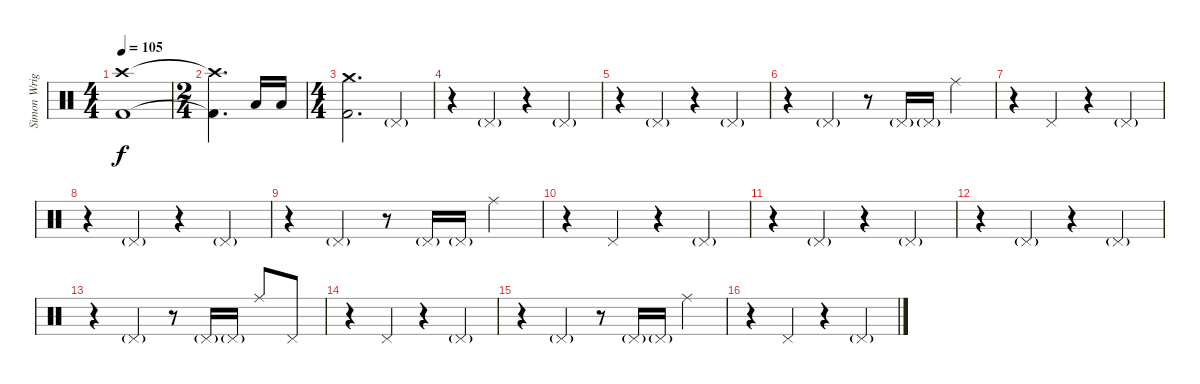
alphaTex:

\track ("Simon Wright" "Simon Wrig") {instrument percussion}
\staff {score}
\articulation defaults
\ts (4 4)
\tempo 105
\clef neutral
\ks c
("Crash high (hit)"{t} "Kick (hit) 2"{t}).1{dy f} |
\ts (2 4)
("Crash high (hit)"{t} "Kick (hit) 2"{t}).4{d} "Low Tom (hit)".16 "Low Tom (hit)".16 |
\ts (4 4)
("Crash medium (hit)" "Kick (hit) 2").2{d} "Pedal Hi-Hat (hit)"{g}.4 |
r.4 "Pedal Hi-Hat (hit)"{g}.4 r.4 "Pedal Hi-Hat (hit)"{g}.4 |
r.4 "Pedal Hi-Hat (hit)"{g}.4 r.4 "Pedal Hi-Hat (hit)"{g}.4 |
r.4 "Pedal Hi-Hat (hit)"{g}.4 r.8 "Pedal Hi-Hat (hit)"{g}.16 "Pedal Hi-Hat (hit)"{g}.16 "Ride (middle)".4 |
r.4 "Pedal Hi-Hat (hit)".4 r.4 "Pedal Hi-Hat (hit)"{g}.4 |
r.4 "Pedal Hi-Hat (hit)"{g}.4 r.4 "Pedal Hi-Hat (hit)"{g}.4 |
r.4 "Pedal Hi-Hat (hit)"{g}.4 r.8 "Pedal Hi-Hat (hit)"{g}.16 "Pedal Hi-Hat (hit)"{g}.16 "Ride (middle)".4 |
r.4 "Pedal Hi-Hat (hit)".4 r.4 "Pedal Hi-Hat (hit)"{g}.4 |
r.4 "Pedal Hi-Hat (hit)"{g}.4 r.4 "Pedal Hi-Hat (hit)"{g}.4 |
r.4 "Pedal Hi-Hat (hit)"{g}.4 r.4 "Pedal Hi-Hat (hit)"{g}.4 |
r.4 "Pedal Hi-Hat (hit)"{g}.4 r.8 "Pedal Hi-Hat (hit)"{g}.16 "Pedal Hi-Hat (hit)"{g}.16 "Ride (middle)".8 "Pedal Hi-Hat (hit)".8 |
r.4 "Pedal Hi-Hat (hit)".4 r.4 "Pedal Hi-Hat (hit)"{g}.4 |
r.4 "Pedal Hi-Hat (hit)"{g}.4 r.8 "Pedal Hi-Hat (hit)"{g}.16 "Pedal Hi-Hat (hit)"{g}.16 "Ride (middle)".4 |
r.4 "Pedal Hi-Hat (hit)".4 r.4 "Pedal Hi-Hat (hit)"{g}.4
